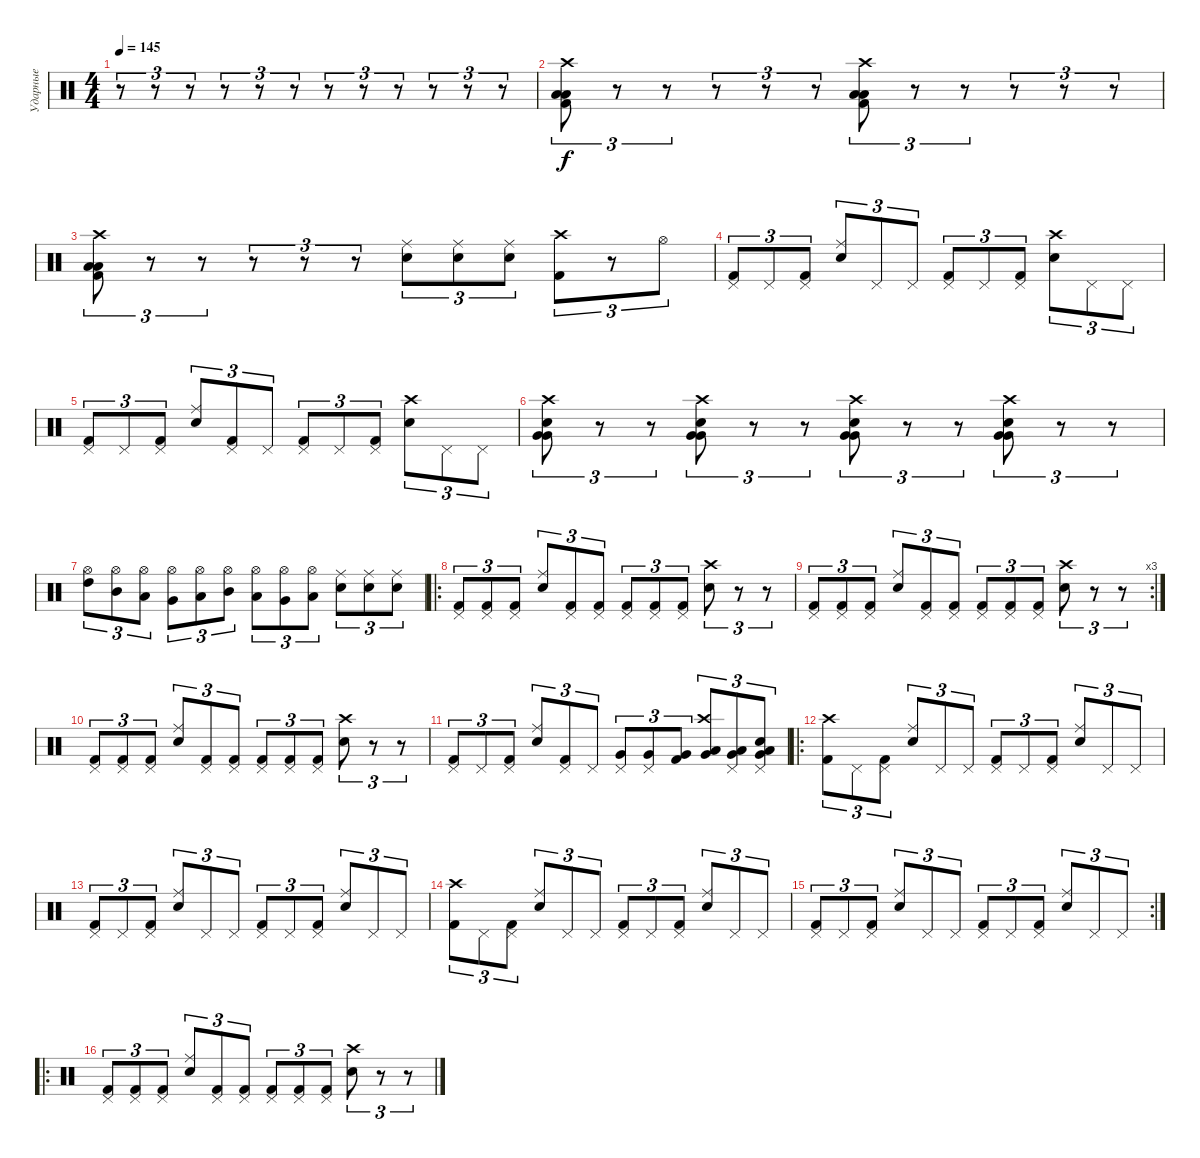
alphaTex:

\track ("Ударные" "Ударные") {instrument percussion}
\staff {score}
\articulation defaults
\ts (4 4)
\tempo 145
\clef neutral
\ks c
r.8{tu (3 2) dy f} r.8{tu (3 2)} r.8{tu (3 2)} r.8{tu (3 2)} r.8{tu (3 2)} r.8{tu (3 2)} r.8{tu (3 2)} r.8{tu (3 2)} r.8{tu (3 2)} r.8{tu (3 2)} r.8{tu (3 2)} r.8{tu (3 2)} |
("Low Tom (hit)" "Low Tom (hit)" "Kick (hit) 2" "Crash high (hit)").8{tu (3 2)} r.8{tu (3 2)} r.8{tu (3 2)} r.8{tu (3 2)} r.8{tu (3 2)} r.8{tu (3 2)} ("Low Tom (hit)" "Low Tom (hit)" "Kick (hit) 2" "Crash high (hit)").8{tu (3 2)} r.8{tu (3 2)} r.8{tu (3 2)} r.8{tu (3 2)} r.8{tu (3 2)} r.8{tu (3 2)} |
("Kick (hit) 2" "Low Tom (hit)" "Low Tom (hit)" "Crash high (hit)").8{tu (3 2)} r.8{tu (3 2)} r.8{tu (3 2)} r.8{tu (3 2)} r.8{tu (3 2)} r.8{tu (3 2)} ("Electric Snare (hit)" "Ride (middle)").8{tu (3 2)} ("Electric Snare (hit)" "Ride (middle)").8{tu (3 2)} ("Electric Snare (hit)" "Ride (middle)").8{tu (3 2)} ("Kick (hit) 2" "Crash high (hit)").8{tu (3 2)} r.8{tu (3 2)} "Hi-Hat (open)".8{tu (3 2)} |
("Kick (hit) 2" "Pedal Hi-Hat (hit)").8{tu (3 2)} "Pedal Hi-Hat (hit)".8{tu (3 2)} ("Kick (hit) 2" "Pedal Hi-Hat (hit)").8{tu (3 2)} ("Electric Snare (hit)" "Ride (middle)").8{tu (3 2)} "Pedal Hi-Hat (hit)".8{tu (3 2)} "Pedal Hi-Hat (hit)".8{tu (3 2)} ("Kick (hit) 2" "Pedal Hi-Hat (hit)").8{tu (3 2)} "Pedal Hi-Hat (hit)".8{tu (3 2)} ("Pedal Hi-Hat (hit)" "Kick (hit) 2").8{tu (3 2)} ("Electric Snare (hit)" "Crash high (hit)").8{tu (3 2)} "Pedal Hi-Hat (hit)".8{tu (3 2)} "Pedal Hi-Hat (hit)".8{tu (3 2)} |
("Kick (hit) 2" "Pedal Hi-Hat (hit)").8{tu (3 2)} "Pedal Hi-Hat (hit)".8{tu (3 2)} ("Kick (hit) 2" "Pedal Hi-Hat (hit)").8{tu (3 2)} ("Electric Snare (hit)" "Ride (middle)").8{tu (3 2)} ("Kick (hit) 2" "Pedal Hi-Hat (hit)").8{tu (3 2)} "Pedal Hi-Hat (hit)".8{tu (3 2)} ("Kick (hit) 2" "Pedal Hi-Hat (hit)").8{tu (3 2)} "Pedal Hi-Hat (hit)".8{tu (3 2)} ("Pedal Hi-Hat (hit)" "Kick (hit) 2").8{tu (3 2)} ("Electric Snare (hit)" "Crash high (hit)").8{tu (3 2)} "Pedal Hi-Hat (hit)".8{tu (3 2)} "Pedal Hi-Hat (hit)".8{tu (3 2)} |
("Very Low Tom (hit)" "Electric Snare (hit)" "Very Low Tom (hit)" "Crash high (hit)").8{tu (3 2)} r.8{tu (3 2)} r.8{tu (3 2)} ("Crash high (hit)" "Electric Snare (hit)" "Very Low Tom (hit)" "Very Low Tom (hit)").8{tu (3 2)} r.8{tu (3 2)} r.8{tu (3 2)} ("Electric Snare (hit)" "Very Low Tom (hit)" "Very Low Tom (hit)" "Crash high (hit)").8{tu (3 2)} r.8{tu (3 2)} r.8{tu (3 2)} ("Crash high (hit)" "Very Low Tom (hit)" "Very Low Tom (hit)" "Electric Snare (hit)").8{tu (3 2)} r.8{tu (3 2)} r.8{tu (3 2)} |
("High Tom (hit)" "Hi-Hat (open)").8{tu (3 2)} ("Mid Tom (hit)" "Hi-Hat (open)").8{tu (3 2)} ("Low Tom (hit)" "Hi-Hat (open)").8{tu (3 2)} ("Hi-Hat (open)" "Very Low Tom (hit)").8{tu (3 2)} ("Hi-Hat (open)" "Low Floor Tom (hit)").8{tu (3 2)} ("Hi-Hat (open)" "Mid Tom (hit)").8{tu (3 2)} ("Hi-Hat (open)" "Low Tom (hit)").8{tu (3 2)} ("Hi-Hat (open)" "Very Low Tom (hit)").8{tu (3 2)} ("Hi-Hat (open)" "Low Floor Tom (hit)").8{tu (3 2)} ("Electric Snare (hit)" "Ride (middle)").8{tu (3 2)} ("Electric Snare (hit)" "Ride (middle)").8{tu (3 2)} ("Electric Snare (hit)" "Ride (middle)").8{tu (3 2)} |
\ro
("Kick (hit) 2" "Pedal Hi-Hat (hit)").8{tu (3 2)} ("Pedal Hi-Hat (hit)" "Kick (hit) 2").8{tu (3 2)} ("Kick (hit) 2" "Pedal Hi-Hat (hit)").8{tu (3 2)} ("Electric Snare (hit)" "Ride (middle)").8{tu (3 2)} ("Kick (hit) 2" "Pedal Hi-Hat (hit)").8{tu (3 2)} ("Kick (hit) 2" "Pedal Hi-Hat (hit)").8{tu (3 2)} ("Kick (hit) 2" "Pedal Hi-Hat (hit)").8{tu (3 2)} ("Kick (hit) 2" "Pedal Hi-Hat (hit)").8{tu (3 2)} ("Pedal Hi-Hat (hit)" "Kick (hit) 2").8{tu (3 2)} ("Electric Snare (hit)" "Crash high (hit)").8{tu (3 2)} r.8{tu (3 2)} r.8{tu (3 2)} |
\rc 3
("Kick (hit) 2" "Pedal Hi-Hat (hit)").8{tu (3 2)} ("Pedal Hi-Hat (hit)" "Kick (hit) 2").8{tu (3 2)} ("Kick (hit) 2" "Pedal Hi-Hat (hit)").8{tu (3 2)} ("Electric Snare (hit)" "Ride (middle)").8{tu (3 2)} ("Kick (hit) 2" "Pedal Hi-Hat (hit)").8{tu (3 2)} ("Kick (hit) 2" "Pedal Hi-Hat (hit)").8{tu (3 2)} ("Kick (hit) 2" "Pedal Hi-Hat (hit)").8{tu (3 2)} ("Kick (hit) 2" "Pedal Hi-Hat (hit)").8{tu (3 2)} ("Pedal Hi-Hat (hit)" "Kick (hit) 2").8{tu (3 2)} ("Electric Snare (hit)" "Crash high (hit)").8{tu (3 2)} r.8{tu (3 2)} r.8{tu (3 2)} |
("Kick (hit) 2" "Pedal Hi-Hat (hit)").8{tu (3 2)} ("Pedal Hi-Hat (hit)" "Kick (hit) 2").8{tu (3 2)} ("Kick (hit) 2" "Pedal Hi-Hat (hit)").8{tu (3 2)} ("Electric Snare (hit)" "Ride (middle)").8{tu (3 2)} ("Kick (hit) 2" "Pedal Hi-Hat (hit)").8{tu (3 2)} ("Kick (hit) 2" "Pedal Hi-Hat (hit)").8{tu (3 2)} ("Kick (hit) 2" "Pedal Hi-Hat (hit)").8{tu (3 2)} ("Kick (hit) 2" "Pedal Hi-Hat (hit)").8{tu (3 2)} ("Pedal Hi-Hat (hit)" "Kick (hit) 2").8{tu (3 2)} ("Electric Snare (hit)" "Crash high (hit)").8{tu (3 2)} r.8{tu (3 2)} r.8{tu (3 2)} |
("Kick (hit) 2" "Pedal Hi-Hat (hit)").8{tu (3 2)} "Pedal Hi-Hat (hit)".8{tu (3 2)} ("Kick (hit) 2" "Pedal Hi-Hat (hit)").8{tu (3 2)} ("Electric Snare (hit)" "Ride (middle)").8{tu (3 2)} ("Kick (hit) 2" "Pedal Hi-Hat (hit)").8{tu (3 2)} "Pedal Hi-Hat (hit)".8{tu (3 2)} ("Very Low Tom (hit)" "Pedal Hi-Hat (hit)").8{tu (3 2)} ("Very Low Tom (hit)" "Pedal Hi-Hat (hit)").8{tu (3 2)} ("Very Low Tom (hit)" "Kick (hit) 2").8{tu (3 2)} ("Low Tom (hit)" "Very Low Tom (hit)" "Crash high (hit)").8{tu (3 2)} ("Low Tom (hit)" "Very Low Tom (hit)" "Pedal Hi-Hat (hit)").8{tu (3 2)} ("Low Tom (hit)" "Very Low Tom (hit)" "Pedal Hi-Hat (hit)" "Electric Snare (hit)").8{tu (3 2)} |
\ro
("Kick (hit) 2" "Crash high (hit)").8{tu (3 2)} "Pedal Hi-Hat (hit)".8{tu (3 2)} ("Kick (hit) 2" "Pedal Hi-Hat (hit)").8{tu (3 2)} ("Electric Snare (hit)" "Ride (middle)").8{tu (3 2)} "Pedal Hi-Hat (hit)".8{tu (3 2)} "Pedal Hi-Hat (hit)".8{tu (3 2)} ("Kick (hit) 2" "Pedal Hi-Hat (hit)").8{tu (3 2)} "Pedal Hi-Hat (hit)".8{tu (3 2)} ("Pedal Hi-Hat (hit)" "Kick (hit) 2").8{tu (3 2)} ("Electric Snare (hit)" "Ride (middle)").8{tu (3 2)} "Pedal Hi-Hat (hit)".8{tu (3 2)} "Pedal Hi-Hat (hit)".8{tu (3 2)} |
("Kick (hit) 2" "Pedal Hi-Hat (hit)").8{tu (3 2)} "Pedal Hi-Hat (hit)".8{tu (3 2)} ("Kick (hit) 2" "Pedal Hi-Hat (hit)").8{tu (3 2)} ("Electric Snare (hit)" "Ride (middle)").8{tu (3 2)} "Pedal Hi-Hat (hit)".8{tu (3 2)} "Pedal Hi-Hat (hit)".8{tu (3 2)} ("Kick (hit) 2" "Pedal Hi-Hat (hit)").8{tu (3 2)} "Pedal Hi-Hat (hit)".8{tu (3 2)} ("Pedal Hi-Hat (hit)" "Kick (hit) 2").8{tu (3 2)} ("Electric Snare (hit)" "Ride (middle)").8{tu (3 2)} "Pedal Hi-Hat (hit)".8{tu (3 2)} "Pedal Hi-Hat (hit)".8{tu (3 2)} |
("Kick (hit) 2" "Crash high (hit)").8{tu (3 2)} "Pedal Hi-Hat (hit)".8{tu (3 2)} ("Kick (hit) 2" "Pedal Hi-Hat (hit)").8{tu (3 2)} ("Electric Snare (hit)" "Ride (middle)").8{tu (3 2)} "Pedal Hi-Hat (hit)".8{tu (3 2)} "Pedal Hi-Hat (hit)".8{tu (3 2)} ("Kick (hit) 2" "Pedal Hi-Hat (hit)").8{tu (3 2)} "Pedal Hi-Hat (hit)".8{tu (3 2)} ("Pedal Hi-Hat (hit)" "Kick (hit) 2").8{tu (3 2)} ("Electric Snare (hit)" "Ride (middle)").8{tu (3 2)} "Pedal Hi-Hat (hit)".8{tu (3 2)} "Pedal Hi-Hat (hit)".8{tu (3 2)} |
\rc 2
("Kick (hit) 2" "Pedal Hi-Hat (hit)").8{tu (3 2)} "Pedal Hi-Hat (hit)".8{tu (3 2)} ("Kick (hit) 2" "Pedal Hi-Hat (hit)").8{tu (3 2)} ("Electric Snare (hit)" "Ride (middle)").8{tu (3 2)} "Pedal Hi-Hat (hit)".8{tu (3 2)} "Pedal Hi-Hat (hit)".8{tu (3 2)} ("Kick (hit) 2" "Pedal Hi-Hat (hit)").8{tu (3 2)} "Pedal Hi-Hat (hit)".8{tu (3 2)} ("Pedal Hi-Hat (hit)" "Kick (hit) 2").8{tu (3 2)} ("Electric Snare (hit)" "Ride (middle)").8{tu (3 2)} "Pedal Hi-Hat (hit)".8{tu (3 2)} "Pedal Hi-Hat (hit)".8{tu (3 2)} |
\ro
("Kick (hit) 2" "Pedal Hi-Hat (hit)").8{tu (3 2)} ("Pedal Hi-Hat (hit)" "Kick (hit) 2").8{tu (3 2)} ("Kick (hit) 2" "Pedal Hi-Hat (hit)").8{tu (3 2)} ("Electric Snare (hit)" "Ride (middle)").8{tu (3 2)} ("Kick (hit) 2" "Pedal Hi-Hat (hit)").8{tu (3 2)} ("Kick (hit) 2" "Pedal Hi-Hat (hit)").8{tu (3 2)} ("Kick (hit) 2" "Pedal Hi-Hat (hit)").8{tu (3 2)} ("Kick (hit) 2" "Pedal Hi-Hat (hit)").8{tu (3 2)} ("Pedal Hi-Hat (hit)" "Kick (hit) 2").8{tu (3 2)} ("Electric Snare (hit)" "Crash high (hit)").8{tu (3 2)} r.8{tu (3 2)} r.8{tu (3 2)}
